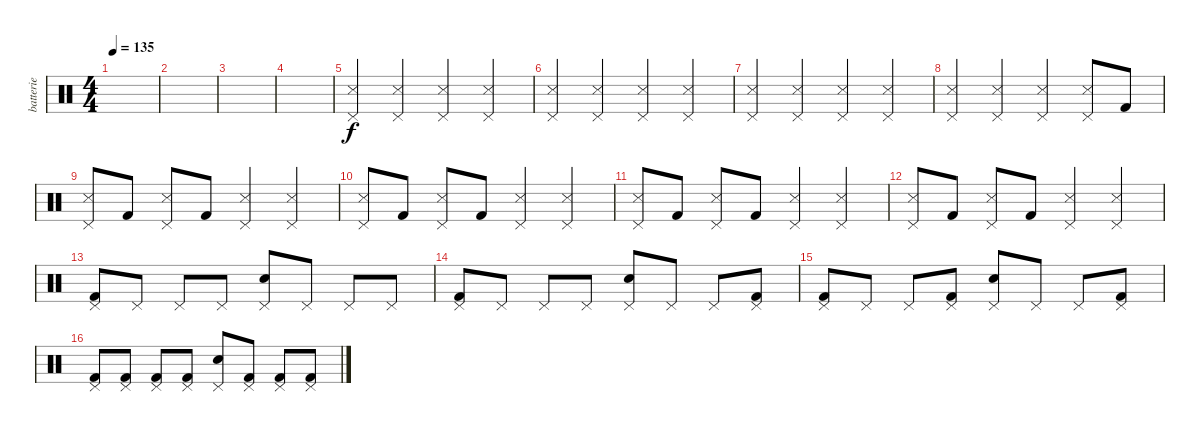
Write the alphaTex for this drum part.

\track ("batterie" "batterie") {instrument percussion}
\staff {score}
\articulation defaults
\ts (4 4)
\tempo 135
\clef neutral
\ks c
|
|
|
|
("Snare (side stick) 3" "Pedal Hi-Hat (hit)").4 ("Snare (side stick) 3" "Pedal Hi-Hat (hit)").4 ("Snare (side stick) 3" "Pedal Hi-Hat (hit)").4 ("Snare (side stick) 3" "Pedal Hi-Hat (hit)").4 |
("Snare (side stick) 3" "Pedal Hi-Hat (hit)").4 ("Snare (side stick) 3" "Pedal Hi-Hat (hit)").4 ("Snare (side stick) 3" "Pedal Hi-Hat (hit)").4 ("Snare (side stick) 3" "Pedal Hi-Hat (hit)").4 |
("Snare (side stick) 3" "Pedal Hi-Hat (hit)").4 ("Snare (side stick) 3" "Pedal Hi-Hat (hit)").4 ("Snare (side stick) 3" "Pedal Hi-Hat (hit)").4 ("Snare (side stick) 3" "Pedal Hi-Hat (hit)").4 |
("Snare (side stick) 3" "Pedal Hi-Hat (hit)").4 ("Snare (side stick) 3" "Pedal Hi-Hat (hit)").4 ("Snare (side stick) 3" "Pedal Hi-Hat (hit)").4 ("Snare (side stick) 3" "Pedal Hi-Hat (hit)").8 "Kick (hit) 2".8 |
("Snare (side stick) 3" "Pedal Hi-Hat (hit)").8 "Kick (hit) 2".8 ("Snare (side stick) 3" "Pedal Hi-Hat (hit)").8 "Kick (hit) 2".8 ("Snare (side stick) 3" "Pedal Hi-Hat (hit)").4 ("Snare (side stick) 3" "Pedal Hi-Hat (hit)").4 |
("Snare (side stick) 3" "Pedal Hi-Hat (hit)").8 "Kick (hit) 2".8 ("Snare (side stick) 3" "Pedal Hi-Hat (hit)").8 "Kick (hit) 2".8 ("Snare (side stick) 3" "Pedal Hi-Hat (hit)").4 ("Snare (side stick) 3" "Pedal Hi-Hat (hit)").4 |
("Snare (side stick) 3" "Pedal Hi-Hat (hit)").8 "Kick (hit) 2".8 ("Snare (side stick) 3" "Pedal Hi-Hat (hit)").8 "Kick (hit) 2".8 ("Snare (side stick) 3" "Pedal Hi-Hat (hit)").4 ("Snare (side stick) 3" "Pedal Hi-Hat (hit)").4 |
("Snare (side stick) 3" "Pedal Hi-Hat (hit)").8 "Kick (hit) 2".8 ("Snare (side stick) 3" "Pedal Hi-Hat (hit)").8 "Kick (hit) 2".8 ("Snare (side stick) 3" "Pedal Hi-Hat (hit)").4 ("Snare (side stick) 3" "Pedal Hi-Hat (hit)").4 |
("Kick (hit) 2" "Pedal Hi-Hat (hit)").8 "Pedal Hi-Hat (hit)".8 "Pedal Hi-Hat (hit)".8 "Pedal Hi-Hat (hit)".8 ("Snare (hit) 2" "Pedal Hi-Hat (hit)").8 "Pedal Hi-Hat (hit)".8 "Pedal Hi-Hat (hit)".8 "Pedal Hi-Hat (hit)".8 |
("Kick (hit) 2" "Pedal Hi-Hat (hit)").8 "Pedal Hi-Hat (hit)".8 "Pedal Hi-Hat (hit)".8 "Pedal Hi-Hat (hit)".8 ("Snare (hit) 2" "Pedal Hi-Hat (hit)").8 "Pedal Hi-Hat (hit)".8 "Pedal Hi-Hat (hit)".8 ("Kick (hit) 2" "Pedal Hi-Hat (hit)").8 |
("Kick (hit) 2" "Pedal Hi-Hat (hit)").8 "Pedal Hi-Hat (hit)".8 "Pedal Hi-Hat (hit)".8 ("Kick (hit) 2" "Pedal Hi-Hat (hit)").8 ("Snare (hit) 2" "Pedal Hi-Hat (hit)").8 "Pedal Hi-Hat (hit)".8 "Pedal Hi-Hat (hit)".8 ("Kick (hit) 2" "Pedal Hi-Hat (hit)").8 |
("Kick (hit) 2" "Pedal Hi-Hat (hit)").8 ("Kick (hit) 2" "Pedal Hi-Hat (hit)").8 ("Kick (hit) 2" "Pedal Hi-Hat (hit)").8 ("Kick (hit) 2" "Pedal Hi-Hat (hit)").8 ("Snare (hit) 2" "Pedal Hi-Hat (hit)").8 ("Kick (hit) 2" "Pedal Hi-Hat (hit)").8 ("Kick (hit) 2" "Pedal Hi-Hat (hit)").8 ("Kick (hit) 2" "Pedal Hi-Hat (hit)").8
